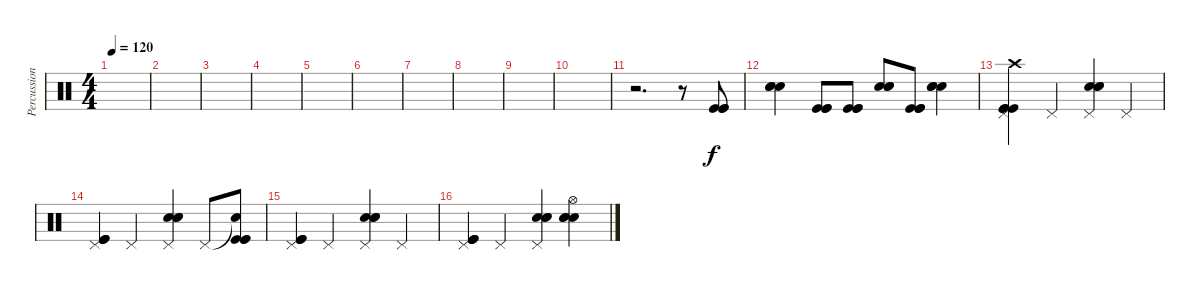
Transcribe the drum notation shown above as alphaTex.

\track ("Percussions" "Percussion") {instrument percussion}
\staff {score}
\articulation defaults
\ts (4 4)
\tempo 120
\clef neutral
\ks c
|
|
|
|
|
|
|
|
|
|
r.2{d} r.8 ("Kick (hit)" "Kick (hit)" "Kick (hit)").8 |
("Snare (hit) 2" "Snare (hit) 2" "Snare (hit) 2").4 ("Kick (hit)" "Kick (hit)" "Kick (hit)").8 ("Kick (hit)" "Kick (hit)" "Kick (hit)").8 ("Snare (hit) 2" "Snare (hit) 2" "Snare (hit) 2").8 ("Kick (hit)" "Kick (hit)" "Kick (hit)").8 ("Snare (hit) 2" "Snare (hit) 2" "Snare (hit) 2").4 |
("Pedal Hi-Hat (hit)" "Crash high (hit)" "Kick (hit)" "Kick (hit)" "Kick (hit)").4 "Pedal Hi-Hat (hit)".4 ("Pedal Hi-Hat (hit)" "Snare (hit) 2" "Snare (hit) 2" "Snare (hit) 2").4 "Pedal Hi-Hat (hit)".4 |
("Pedal Hi-Hat (hit)" "Kick (hit)" "Kick (hit)" "Kick (hit)").4 "Pedal Hi-Hat (hit)".4 ("Pedal Hi-Hat (hit)" "Snare (hit) 2" "Snare (hit) 2" "Snare (hit) 2").4 "Pedal Hi-Hat (hit)".8 ("Snare (hit)"{t} "Kick (hit)" "Kick (hit)" "Kick (hit)").8 |
("Pedal Hi-Hat (hit)" "Kick (hit)" "Kick (hit)" "Kick (hit)").4 "Pedal Hi-Hat (hit)".4 ("Pedal Hi-Hat (hit)" "Snare (hit) 2" "Snare (hit) 2" "Snare (hit) 2").4 "Pedal Hi-Hat (hit)".4 |
("Pedal Hi-Hat (hit)" "Kick (hit)" "Kick (hit)" "Kick (hit)").4 "Pedal Hi-Hat (hit)".4 ("Pedal Hi-Hat (hit)" "Snare (hit) 2" "Snare (hit) 2" "Snare (hit) 2").4 ("Hi-Hat (open)" "Snare (hit) 2" "Snare (hit) 2" "Snare (hit) 2").4
